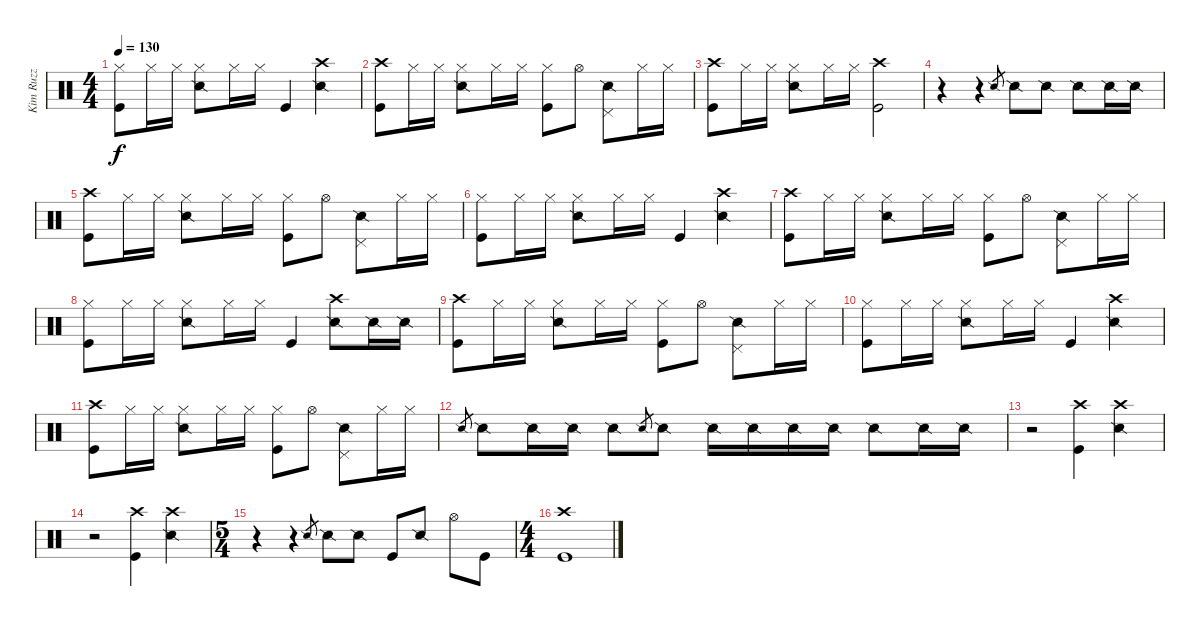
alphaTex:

\track ("Kim Ruzz" "Kim Ruzz") {instrument percussion}
\staff {score}
\articulation defaults
\ts (4 4)
\tempo 130
\clef neutral
\ks c
("Hi-Hat (closed)" "Kick (hit)").8{dy f} "Hi-Hat (closed)".16 "Hi-Hat (closed)".16 ("Hi-Hat (closed)" "Snare (side stick) 2").8 "Hi-Hat (closed)".16 "Hi-Hat (closed)".16 "Kick (hit)".4 ("Crash high (hit)" "Snare (side stick) 2").4 |
("Crash high (hit)" "Kick (hit)").8 "Hi-Hat (closed)".16 "Hi-Hat (closed)".16 ("Hi-Hat (closed)" "Snare (side stick) 2").8 "Hi-Hat (closed)".16 "Hi-Hat (closed)".16 ("Hi-Hat (closed)" "Kick (hit)").8 "Hi-Hat (open)".8 ("Pedal Hi-Hat (hit)" "Snare (side stick) 2").8 "Hi-Hat (closed)".16 "Hi-Hat (closed)".16 |
("Crash high (hit)" "Kick (hit)").8 "Hi-Hat (closed)".16 "Hi-Hat (closed)".16 ("Hi-Hat (closed)" "Snare (side stick) 2").8 "Hi-Hat (closed)".16 "Hi-Hat (closed)".16 ("Crash high (hit)" "Kick (hit)").2 |
r.4 r.4 "Snare (side stick) 2".8{gr} "Snare (side stick) 2".8 "Snare (side stick) 2".8 "Snare (side stick) 2".8 "Snare (side stick) 2".16 "Snare (side stick) 2".16 |
("Crash high (hit)" "Kick (hit)").8 "Hi-Hat (closed)".16 "Hi-Hat (closed)".16 ("Hi-Hat (closed)" "Snare (side stick) 2").8 "Hi-Hat (closed)".16 "Hi-Hat (closed)".16 ("Hi-Hat (closed)" "Kick (hit)").8 "Hi-Hat (open)".8 ("Pedal Hi-Hat (hit)" "Snare (side stick) 2").8 "Hi-Hat (closed)".16 "Hi-Hat (closed)".16 |
("Hi-Hat (closed)" "Kick (hit)").8 "Hi-Hat (closed)".16 "Hi-Hat (closed)".16 ("Hi-Hat (closed)" "Snare (side stick) 2").8 "Hi-Hat (closed)".16 "Hi-Hat (closed)".16 "Kick (hit)".4 ("Crash high (hit)" "Snare (side stick) 2").4 |
("Crash high (hit)" "Kick (hit)").8 "Hi-Hat (closed)".16 "Hi-Hat (closed)".16 ("Hi-Hat (closed)" "Snare (side stick) 2").8 "Hi-Hat (closed)".16 "Hi-Hat (closed)".16 ("Hi-Hat (closed)" "Kick (hit)").8 "Hi-Hat (open)".8 ("Pedal Hi-Hat (hit)" "Snare (side stick) 2").8 "Hi-Hat (closed)".16 "Hi-Hat (closed)".16 |
("Hi-Hat (closed)" "Kick (hit)").8 "Hi-Hat (closed)".16 "Hi-Hat (closed)".16 ("Hi-Hat (closed)" "Snare (side stick) 2").8 "Hi-Hat (closed)".16 "Hi-Hat (closed)".16 "Kick (hit)".4 ("Crash high (hit)" "Snare (side stick) 2").8 "Snare (side stick) 2".16 "Snare (side stick) 2".16 |
("Crash high (hit)" "Kick (hit)").8 "Hi-Hat (closed)".16 "Hi-Hat (closed)".16 ("Hi-Hat (closed)" "Snare (side stick) 2").8 "Hi-Hat (closed)".16 "Hi-Hat (closed)".16 ("Hi-Hat (closed)" "Kick (hit)").8 "Hi-Hat (open)".8 ("Pedal Hi-Hat (hit)" "Snare (side stick) 2").8 "Hi-Hat (closed)".16 "Hi-Hat (closed)".16 |
("Hi-Hat (closed)" "Kick (hit)").8 "Hi-Hat (closed)".16 "Hi-Hat (closed)".16 ("Hi-Hat (closed)" "Snare (side stick) 2").8 "Hi-Hat (closed)".16 "Hi-Hat (closed)".16 "Kick (hit)".4 ("Crash high (hit)" "Snare (side stick) 2").4 |
("Crash high (hit)" "Kick (hit)").8 "Hi-Hat (closed)".16 "Hi-Hat (closed)".16 ("Hi-Hat (closed)" "Snare (side stick) 2").8 "Hi-Hat (closed)".16 "Hi-Hat (closed)".16 ("Hi-Hat (closed)" "Kick (hit)").8 "Hi-Hat (open)".8 ("Pedal Hi-Hat (hit)" "Snare (side stick) 2").8 "Hi-Hat (closed)".16 "Hi-Hat (closed)".16 |
"Snare (side stick) 2".8{gr} "Snare (side stick) 2".8 "Snare (side stick) 2".16 "Snare (side stick) 2".16 "Snare (side stick) 2".8 "Snare (side stick) 2".8{gr} "Snare (side stick) 2".8 "Snare (side stick) 2".16 "Snare (side stick) 2".16 "Snare (side stick) 2".16 "Snare (side stick) 2".16 "Snare (side stick) 2".8 "Snare (side stick) 2".16 "Snare (side stick) 2".16 |
r.2 ("Crash high (hit)" "Kick (hit)").4 ("Crash high (hit)" "Snare (side stick) 2").4 |
r.2 ("Crash high (hit)" "Kick (hit)").4 ("Crash high (hit)" "Snare (side stick) 2").4 |
\ts (5 4)
r.4 r.4 "Snare (side stick) 2".8{gr} "Snare (side stick) 2".8 "Snare (side stick) 2".8 "Kick (hit)".8 "Snare (side stick) 2".8 "Hi-Hat (open)".8 "Kick (hit)".8 |
\ts (4 4)
("Crash high (hit)" "Kick (hit)").1
